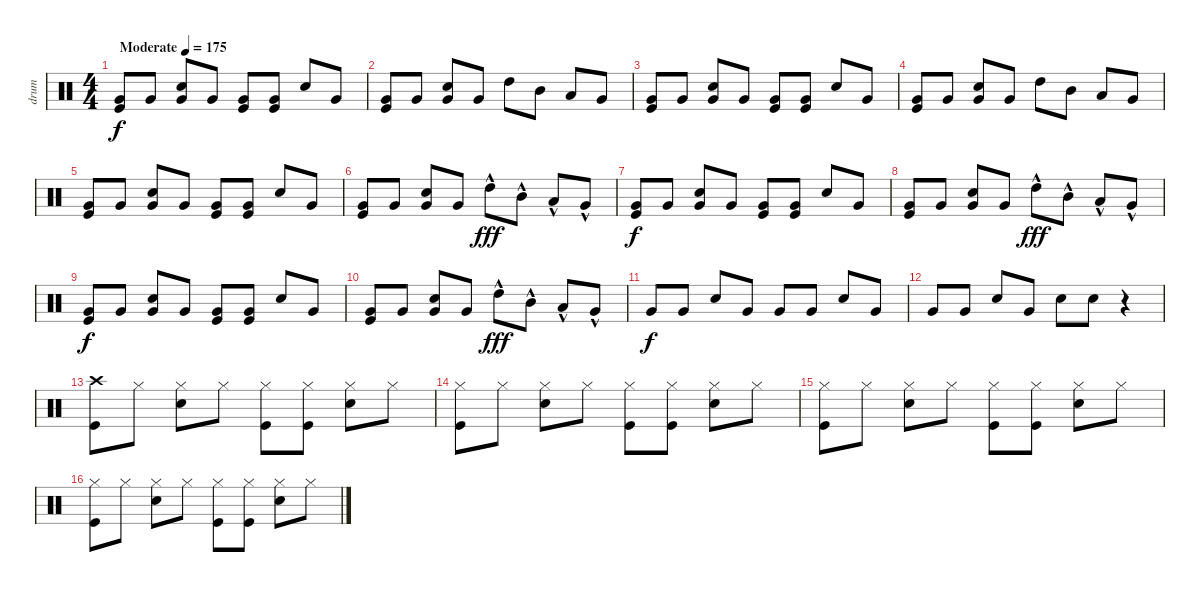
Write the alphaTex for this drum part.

\track ("drum" "drum") {instrument percussion}
\staff {score}
\articulation defaults
\ts (4 4)
\tempo (175 "Moderate")
\clef neutral
\ks c
("Very Low Tom (hit)" "Kick (hit)").8{dy f} "Very Low Tom (hit)".8 ("Very Low Tom (hit)" "Snare (hit) 2").8 "Very Low Tom (hit)".8 ("Very Low Tom (hit)" "Kick (hit)").8 ("Very Low Tom (hit)" "Kick (hit)").8 "Snare (hit) 2".8 "Very Low Tom (hit)".8 |
("Kick (hit)" "Very Low Tom (hit)").8 "Very Low Tom (hit)".8 ("Very Low Tom (hit)" "Snare (hit) 2").8 "Very Low Tom (hit)".8 "High Tom (hit)".8 "Mid Tom (hit)".8 "Low Tom (hit)".8 "Very Low Tom (hit)".8 |
("Very Low Tom (hit)" "Kick (hit)").8 "Very Low Tom (hit)".8 ("Very Low Tom (hit)" "Snare (hit) 2").8 "Very Low Tom (hit)".8 ("Very Low Tom (hit)" "Kick (hit)").8 ("Very Low Tom (hit)" "Kick (hit)").8 "Snare (hit) 2".8 "Very Low Tom (hit)".8 |
("Kick (hit)" "Very Low Tom (hit)").8 "Very Low Tom (hit)".8 ("Very Low Tom (hit)" "Snare (hit) 2").8 "Very Low Tom (hit)".8 "High Tom (hit)".8 "Mid Tom (hit)".8 "Low Tom (hit)".8 "Very Low Tom (hit)".8 |
("Very Low Tom (hit)" "Kick (hit)").8 "Very Low Tom (hit)".8 ("Very Low Tom (hit)" "Snare (hit) 2").8 "Very Low Tom (hit)".8 ("Very Low Tom (hit)" "Kick (hit)").8 ("Very Low Tom (hit)" "Kick (hit)").8 "Snare (hit) 2".8 "Very Low Tom (hit)".8 |
("Kick (hit)" "Very Low Tom (hit)").8 "Very Low Tom (hit)".8 ("Very Low Tom (hit)" "Snare (hit) 2").8 "Very Low Tom (hit)".8 "High Tom (hit)"{hac}.8{dy fff} "Mid Tom (hit)"{hac}.8 "Low Tom (hit)"{hac}.8 "Very Low Tom (hit)"{hac}.8 |
("Very Low Tom (hit)" "Kick (hit)").8{dy f} "Very Low Tom (hit)".8 ("Very Low Tom (hit)" "Snare (hit) 2").8 "Very Low Tom (hit)".8 ("Very Low Tom (hit)" "Kick (hit)").8 ("Very Low Tom (hit)" "Kick (hit)").8 "Snare (hit) 2".8 "Very Low Tom (hit)".8 |
("Kick (hit)" "Very Low Tom (hit)").8 "Very Low Tom (hit)".8 ("Very Low Tom (hit)" "Snare (hit) 2").8 "Very Low Tom (hit)".8 "High Tom (hit)"{hac}.8{dy fff} "Mid Tom (hit)"{hac}.8 "Low Tom (hit)"{hac}.8 "Very Low Tom (hit)"{hac}.8 |
("Very Low Tom (hit)" "Kick (hit)").8{dy f} "Very Low Tom (hit)".8 ("Very Low Tom (hit)" "Snare (hit) 2").8 "Very Low Tom (hit)".8 ("Very Low Tom (hit)" "Kick (hit)").8 ("Very Low Tom (hit)" "Kick (hit)").8 "Snare (hit) 2".8 "Very Low Tom (hit)".8 |
("Kick (hit)" "Very Low Tom (hit)").8 "Very Low Tom (hit)".8 ("Very Low Tom (hit)" "Snare (hit) 2").8 "Very Low Tom (hit)".8 "High Tom (hit)"{hac}.8{dy fff} "Mid Tom (hit)"{hac}.8 "Low Tom (hit)"{hac}.8 "Very Low Tom (hit)"{hac}.8 |
"Very Low Tom (hit)".8{dy f} "Very Low Tom (hit)".8 "Snare (hit) 2".8 "Very Low Tom (hit)".8 "Very Low Tom (hit)".8 "Very Low Tom (hit)".8 "Snare (hit) 2".8 "Very Low Tom (hit)".8 |
"Very Low Tom (hit)".8 "Very Low Tom (hit)".8 "Snare (hit) 2".8 "Very Low Tom (hit)".8 "Snare (hit) 2".8 "Snare (hit) 2".8 r.4 |
("Crash high (hit)" "Kick (hit)").8 "Hi-Hat (closed)".8 ("Hi-Hat (closed)" "Snare (hit) 2").8 "Hi-Hat (closed)".8 ("Hi-Hat (closed)" "Kick (hit)").8 ("Hi-Hat (closed)" "Kick (hit)").8 ("Hi-Hat (closed)" "Snare (hit) 2").8 "Hi-Hat (closed)".8 |
("Hi-Hat (closed)" "Kick (hit)").8 "Hi-Hat (closed)".8 ("Hi-Hat (closed)" "Snare (hit) 2").8 "Hi-Hat (closed)".8 ("Hi-Hat (closed)" "Kick (hit)").8 ("Hi-Hat (closed)" "Kick (hit)").8 ("Hi-Hat (closed)" "Snare (hit) 2").8 "Hi-Hat (closed)".8 |
("Hi-Hat (closed)" "Kick (hit)").8 "Hi-Hat (closed)".8 ("Hi-Hat (closed)" "Snare (hit) 2").8 "Hi-Hat (closed)".8 ("Hi-Hat (closed)" "Kick (hit)").8 ("Hi-Hat (closed)" "Kick (hit)").8 ("Hi-Hat (closed)" "Snare (hit) 2").8 "Hi-Hat (closed)".8 |
("Hi-Hat (closed)" "Kick (hit)").8 "Hi-Hat (closed)".8 ("Hi-Hat (closed)" "Snare (hit) 2").8 "Hi-Hat (closed)".8 ("Hi-Hat (closed)" "Kick (hit)").8 ("Hi-Hat (closed)" "Kick (hit)").8 ("Hi-Hat (closed)" "Snare (hit) 2").8 "Hi-Hat (closed)".8
